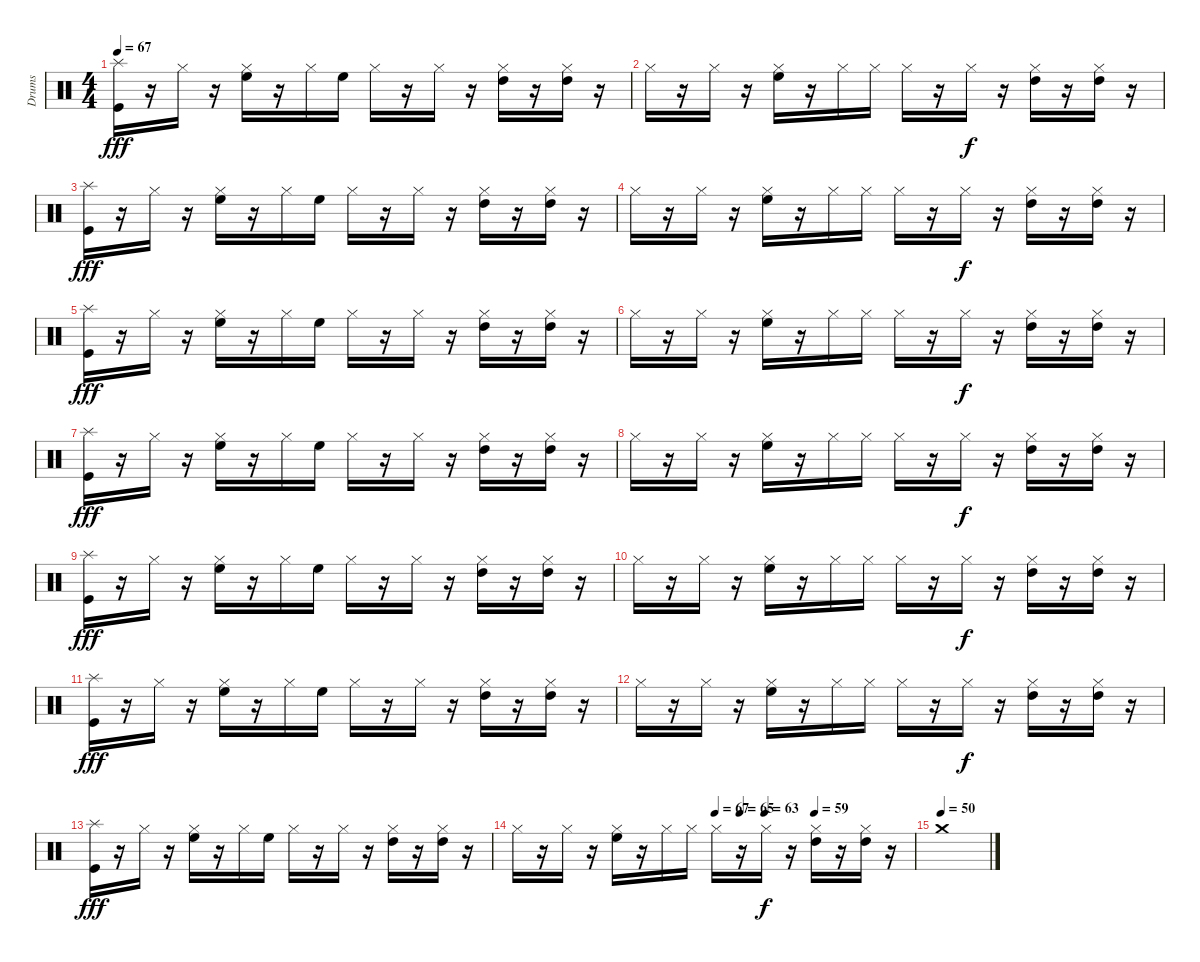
\track ("Drums" "Drums") {instrument percussion}
\staff {score}
\articulation defaults
\ts (4 4)
\tempo 67
\clef neutral
\ks c
("Splash (hit)" "Kick (hit)").16{dy fff} r.16 "Hi-Hat (closed)".16 r.16 ("Hi-Hat (closed)" "High Floor Tom (hit)").16 r.16 "Hi-Hat (closed)".16 "High Floor Tom (hit)".16 "Hi-Hat (closed)".16 r.16 "Hi-Hat (closed)".16 r.16 ("High Tom (hit)" "Hi-Hat (closed)").16 r.16 ("High Tom (hit)" "Hi-Hat (closed)").16 r.16 |
"Hi-Hat (closed)".16 r.16 "Hi-Hat (closed)".16 r.16 ("Hi-Hat (closed)" "High Floor Tom (hit)").16 r.16 "Hi-Hat (closed)".16 "Hi-Hat (closed)".16 "Hi-Hat (closed)".16 r.16 "Hi-Hat (closed)".16{dy f} r.16 ("High Tom (hit)" "Hi-Hat (closed)").16 r.16 ("High Tom (hit)" "Hi-Hat (closed)").16 r.16 |
("Splash (hit)" "Kick (hit)").16{dy fff} r.16 "Hi-Hat (closed)".16 r.16 ("Hi-Hat (closed)" "High Floor Tom (hit)").16 r.16 "Hi-Hat (closed)".16 "High Floor Tom (hit)".16 "Hi-Hat (closed)".16 r.16 "Hi-Hat (closed)".16 r.16 ("High Tom (hit)" "Hi-Hat (closed)").16 r.16 ("High Tom (hit)" "Hi-Hat (closed)").16 r.16 |
"Hi-Hat (closed)".16 r.16 "Hi-Hat (closed)".16 r.16 ("Hi-Hat (closed)" "High Floor Tom (hit)").16 r.16 "Hi-Hat (closed)".16 "Hi-Hat (closed)".16 "Hi-Hat (closed)".16 r.16 "Hi-Hat (closed)".16{dy f} r.16 ("High Tom (hit)" "Hi-Hat (closed)").16 r.16 ("High Tom (hit)" "Hi-Hat (closed)").16 r.16 |
("Splash (hit)" "Kick (hit)").16{dy fff} r.16 "Hi-Hat (closed)".16 r.16 ("Hi-Hat (closed)" "High Floor Tom (hit)").16 r.16 "Hi-Hat (closed)".16 "High Floor Tom (hit)".16 "Hi-Hat (closed)".16 r.16 "Hi-Hat (closed)".16 r.16 ("High Tom (hit)" "Hi-Hat (closed)").16 r.16 ("High Tom (hit)" "Hi-Hat (closed)").16 r.16 |
"Hi-Hat (closed)".16 r.16 "Hi-Hat (closed)".16 r.16 ("Hi-Hat (closed)" "High Floor Tom (hit)").16 r.16 "Hi-Hat (closed)".16 "Hi-Hat (closed)".16 "Hi-Hat (closed)".16 r.16 "Hi-Hat (closed)".16{dy f} r.16 ("High Tom (hit)" "Hi-Hat (closed)").16 r.16 ("High Tom (hit)" "Hi-Hat (closed)").16 r.16 |
("Splash (hit)" "Kick (hit)").16{dy fff} r.16 "Hi-Hat (closed)".16 r.16 ("Hi-Hat (closed)" "High Floor Tom (hit)").16 r.16 "Hi-Hat (closed)".16 "High Floor Tom (hit)".16 "Hi-Hat (closed)".16 r.16 "Hi-Hat (closed)".16 r.16 ("High Tom (hit)" "Hi-Hat (closed)").16 r.16 ("High Tom (hit)" "Hi-Hat (closed)").16 r.16 |
"Hi-Hat (closed)".16 r.16 "Hi-Hat (closed)".16 r.16 ("Hi-Hat (closed)" "High Floor Tom (hit)").16 r.16 "Hi-Hat (closed)".16 "Hi-Hat (closed)".16 "Hi-Hat (closed)".16 r.16 "Hi-Hat (closed)".16{dy f} r.16 ("High Tom (hit)" "Hi-Hat (closed)").16 r.16 ("High Tom (hit)" "Hi-Hat (closed)").16 r.16 |
("Splash (hit)" "Kick (hit)").16{dy fff} r.16 "Hi-Hat (closed)".16 r.16 ("Hi-Hat (closed)" "High Floor Tom (hit)").16 r.16 "Hi-Hat (closed)".16 "High Floor Tom (hit)".16 "Hi-Hat (closed)".16 r.16 "Hi-Hat (closed)".16 r.16 ("High Tom (hit)" "Hi-Hat (closed)").16 r.16 ("High Tom (hit)" "Hi-Hat (closed)").16 r.16 |
"Hi-Hat (closed)".16 r.16 "Hi-Hat (closed)".16 r.16 ("Hi-Hat (closed)" "High Floor Tom (hit)").16 r.16 "Hi-Hat (closed)".16 "Hi-Hat (closed)".16 "Hi-Hat (closed)".16 r.16 "Hi-Hat (closed)".16{dy f} r.16 ("High Tom (hit)" "Hi-Hat (closed)").16 r.16 ("High Tom (hit)" "Hi-Hat (closed)").16 r.16 |
("Splash (hit)" "Kick (hit)").16{dy fff} r.16 "Hi-Hat (closed)".16 r.16 ("Hi-Hat (closed)" "High Floor Tom (hit)").16 r.16 "Hi-Hat (closed)".16 "High Floor Tom (hit)".16 "Hi-Hat (closed)".16 r.16 "Hi-Hat (closed)".16 r.16 ("High Tom (hit)" "Hi-Hat (closed)").16 r.16 ("High Tom (hit)" "Hi-Hat (closed)").16 r.16 |
"Hi-Hat (closed)".16 r.16 "Hi-Hat (closed)".16 r.16 ("Hi-Hat (closed)" "High Floor Tom (hit)").16 r.16 "Hi-Hat (closed)".16 "Hi-Hat (closed)".16 "Hi-Hat (closed)".16 r.16 "Hi-Hat (closed)".16{dy f} r.16 ("High Tom (hit)" "Hi-Hat (closed)").16 r.16 ("High Tom (hit)" "Hi-Hat (closed)").16 r.16 |
("Splash (hit)" "Kick (hit)").16{dy fff} r.16 "Hi-Hat (closed)".16 r.16 ("Hi-Hat (closed)" "High Floor Tom (hit)").16 r.16 "Hi-Hat (closed)".16 "High Floor Tom (hit)".16 "Hi-Hat (closed)".16 r.16 "Hi-Hat (closed)".16 r.16 ("High Tom (hit)" "Hi-Hat (closed)").16 r.16 ("High Tom (hit)" "Hi-Hat (closed)").16 r.16 |
\tempo (67 0.5)
\tempo (65 0.5625)
\tempo (63 0.625)
\tempo (59 0.75)
"Hi-Hat (closed)".16 r.16 "Hi-Hat (closed)".16 r.16 ("Hi-Hat (closed)" "High Floor Tom (hit)").16 r.16 "Hi-Hat (closed)".16 "Hi-Hat (closed)".16 "Hi-Hat (closed)".16 r.16 "Hi-Hat (closed)".16{dy f} r.16 ("High Tom (hit)" "Hi-Hat (closed)").16 r.16 ("High Tom (hit)" "Hi-Hat (closed)").16 r.16 |
\tempo (50)
"Crash medium (hit)".1
